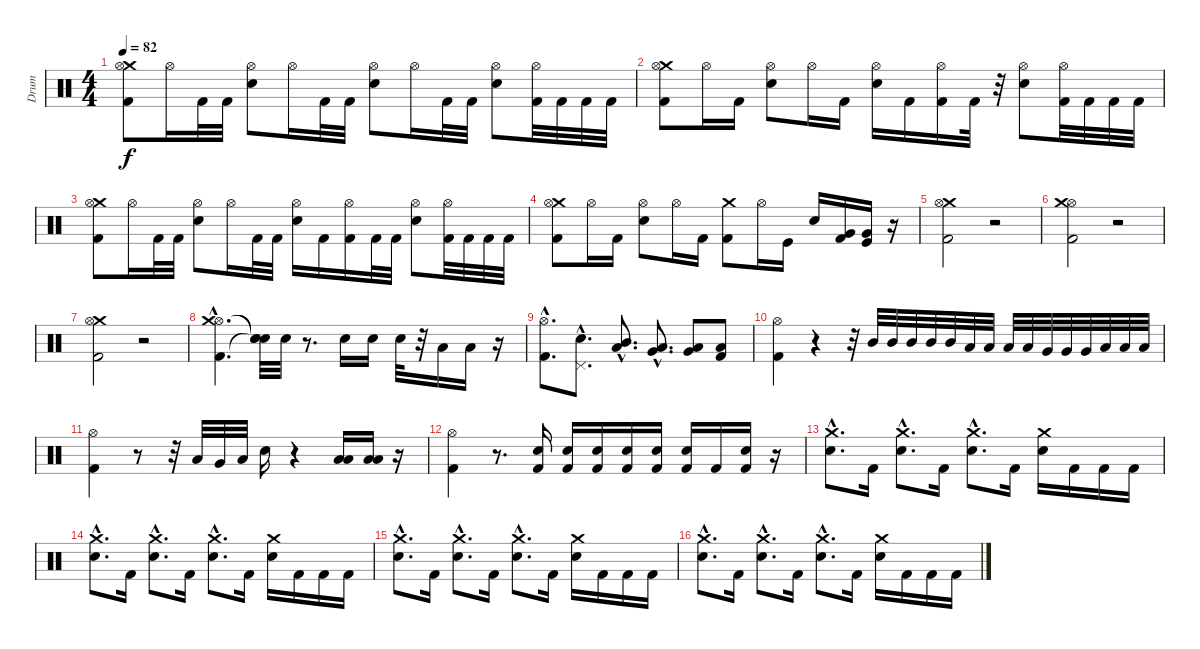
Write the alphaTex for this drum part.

\track ("Drum" "Drum") {instrument percussion}
\staff {score}
\articulation defaults
\ts (4 4)
\tempo 82
\clef neutral
\ks c
("Crash medium (hit)" "Kick (hit) 2" "Hi-Hat (open)").8{dy f} "Hi-Hat (open)".16 "Kick (hit) 2".32 "Kick (hit) 2".32 ("Electric Snare (hit)" "Hi-Hat (open)").8 "Hi-Hat (open)".16 "Kick (hit) 2".32 "Kick (hit) 2".32 ("Electric Snare (hit)" "Hi-Hat (open)").8 "Hi-Hat (open)".16 "Kick (hit) 2".32 "Kick (hit) 2".32 ("Electric Snare (hit)" "Hi-Hat (open)").8 ("Kick (hit) 2" "Hi-Hat (open)").32 "Kick (hit) 2".32 "Kick (hit) 2".32 "Kick (hit) 2".32 |
("Crash medium (hit)" "Kick (hit) 2" "Hi-Hat (open)").8 "Hi-Hat (open)".16 "Kick (hit) 2".16 ("Electric Snare (hit)" "Hi-Hat (open)").8 "Hi-Hat (open)".16 "Kick (hit) 2".16 ("Electric Snare (hit)" "Hi-Hat (open)").16 "Kick (hit) 2".16 ("Kick (hit) 2" "Hi-Hat (open)").16 "Kick (hit) 2".32 r.32 ("Electric Snare (hit)" "Hi-Hat (open)").8 ("Kick (hit) 2" "Hi-Hat (open)").32 "Kick (hit) 2".32 "Kick (hit) 2".32 "Kick (hit) 2".32 |
("Crash medium (hit)" "Kick (hit) 2" "Hi-Hat (open)").8 "Hi-Hat (open)".16 "Kick (hit) 2".32 "Kick (hit) 2".32 ("Electric Snare (hit)" "Hi-Hat (open)").8 "Hi-Hat (open)".16 "Kick (hit) 2".32 "Kick (hit) 2".32 ("Electric Snare (hit)" "Hi-Hat (open)").16 "Kick (hit) 2".16 ("Kick (hit) 2" "Hi-Hat (open)").16 "Kick (hit) 2".32 "Kick (hit) 2".32 ("Electric Snare (hit)" "Hi-Hat (open)").8 ("Kick (hit) 2" "Hi-Hat (open)").32 "Kick (hit) 2".32 "Kick (hit) 2".32 "Kick (hit) 2".32 |
("Crash medium (hit)" "Kick (hit) 2" "Hi-Hat (open)").8 "Hi-Hat (open)".16 "Kick (hit) 2".16 ("Electric Snare (hit)" "Hi-Hat (open)").8 "Hi-Hat (open)".16 "Kick (hit) 2".16 ("Crash medium (hit)" "Kick (hit) 2").8 "Hi-Hat (open)".16 "Kick (hit)".16 "Electric Snare (hit)".16 ("Very Low Tom (hit)" "Kick (hit) 2").16 ("Very Low Tom (hit)" "Kick (hit)").16 r.16 |
("Crash medium (hit)" "Hi-Hat (open)" "Kick (hit) 2").2 r.2 |
("Hi-Hat (open)" "Crash medium (hit)" "Kick (hit) 2").2 r.2 |
("Crash medium (hit)" "Hi-Hat (open)" "Kick (hit) 2").2 r.2 |
("Hi-Hat (open)"{hac} "Crash medium (hit)"{hac} "Kick (hit) 2"{hac}).4{d} ("Snare (hit)"{t} "Snare (hit)"{t} "Snare (hit)"{t}).32 "Hand Clap (hit)".32 r.8{d} "Electric Snare (hit)".16 "Electric Snare (hit)".16 "Hand Clap (hit)".32 r.32 "Low Tom (hit)".16 "Low Tom (hit)".16 r.16 |
("Hi-Hat (open)"{hac} "Kick (hit) 2"{hac}).8{d} ("Pedal Hi-Hat (hit)"{hac} "Electric Snare (hit)"{hac}).8{d} ("Low Tom (hit)"{hac} "Mid Tom (hit)"{hac}).8{d} ("Very Low Tom (hit)"{hac} "Low Tom (hit)"{hac}).8{d} ("Low Floor Tom (hit)" "Very Low Tom (hit)").8 ("Kick (hit) 2" "Low Floor Tom (hit)").8 |
("Hi-Hat (open)" "Kick (hit) 2").4 r.4 r.32 "Mid Tom (hit)".32{volume 8} "Mid Tom (hit)".32{volume 9} "Mid Tom (hit)".32 "Mid Tom (hit)".32{volume 10} "Mid Tom (hit)".32 "Low Tom (hit)".32{volume 11} "Low Tom (hit)".32 "Low Tom (hit)".32{volume 12} "Low Tom (hit)".32 "Very Low Tom (hit)".32{volume 13} "Very Low Tom (hit)".32 "Very Low Tom (hit)".32{volume 14} "Low Floor Tom (hit)".32 "Low Floor Tom (hit)".32{volume 15} "Low Floor Tom (hit)".32 |
("Hi-Hat (open)" "Kick (hit) 2").4{volume 16} r.8 r.32 "Low Tom (hit)".32 "Very Low Tom (hit)".32 "Low Floor Tom (hit)".32 "Electric Snare (hit)".16 r.4 ("Low Tom (hit)" "Low Floor Tom (hit)").16 ("Low Tom (hit)" "Low Floor Tom (hit)").16 r.16 |
("Hi-Hat (open)" "Kick (hit) 2").4 r.8{d} ("Kick (hit) 2" "Electric Snare (hit)").16 ("Kick (hit) 2" "Electric Snare (hit)").16 ("Kick (hit) 2" "Electric Snare (hit)").16 ("Kick (hit) 2" "Electric Snare (hit)").16 ("Kick (hit) 2" "Electric Snare (hit)").16 ("Kick (hit) 2" "Electric Snare (hit)").16 "Kick (hit) 2".16 ("Kick (hit) 2" "Electric Snare (hit)").16 r.16 |
("Electric Snare (hit)"{hac} "Crash medium (hit)").8{d} "Kick (hit) 2".16 ("Electric Snare (hit)"{hac} "Crash medium (hit)").8{d} "Kick (hit) 2".16 ("Electric Snare (hit)"{hac} "Crash medium (hit)").8{d} "Kick (hit) 2".16 ("Electric Snare (hit)" "Crash medium (hit)").16 "Kick (hit) 2".16 "Kick (hit) 2".16 "Kick (hit) 2".16 |
("Electric Snare (hit)"{hac} "Crash medium (hit)").8{d} "Kick (hit) 2".16 ("Electric Snare (hit)"{hac} "Crash medium (hit)").8{d} "Kick (hit) 2".16 ("Electric Snare (hit)"{hac} "Crash medium (hit)").8{d} "Kick (hit) 2".16 ("Electric Snare (hit)" "Crash medium (hit)").16 "Kick (hit) 2".16 "Kick (hit) 2".16 "Kick (hit) 2".16 |
("Electric Snare (hit)"{hac} "Crash medium (hit)").8{d} "Kick (hit) 2".16 ("Electric Snare (hit)"{hac} "Crash medium (hit)").8{d} "Kick (hit) 2".16 ("Electric Snare (hit)"{hac} "Crash medium (hit)").8{d} "Kick (hit) 2".16 ("Electric Snare (hit)" "Crash medium (hit)").16 "Kick (hit) 2".16 "Kick (hit) 2".16 "Kick (hit) 2".16 |
("Electric Snare (hit)"{hac} "Crash medium (hit)").8{d} "Kick (hit) 2".16 ("Electric Snare (hit)"{hac} "Crash medium (hit)").8{d} "Kick (hit) 2".16 ("Electric Snare (hit)"{hac} "Crash medium (hit)").8{d} "Kick (hit) 2".16 ("Electric Snare (hit)" "Crash medium (hit)").16 "Kick (hit) 2".16 "Kick (hit) 2".16 "Kick (hit) 2".16
